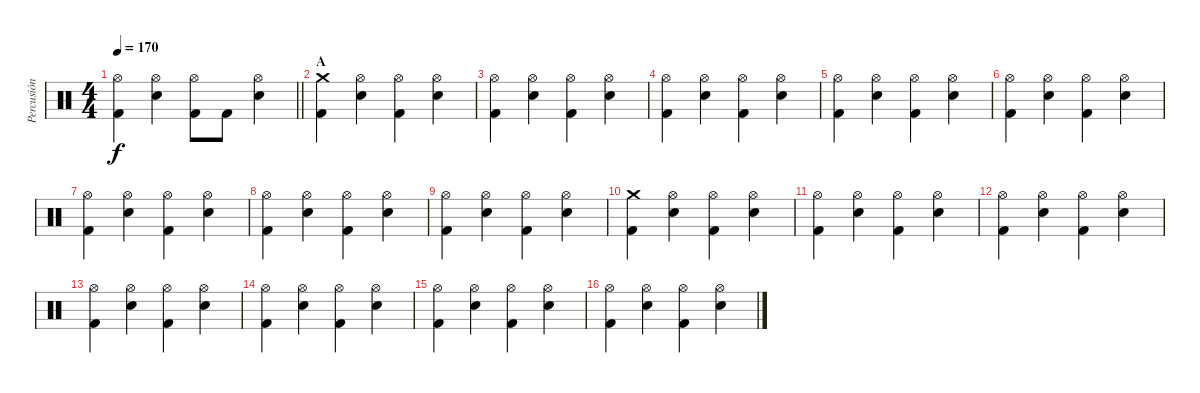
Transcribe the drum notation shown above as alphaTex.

\track ("Percusión" "Percusión") {instrument percussion}
\staff {score}
\articulation defaults
\ts (4 4)
\tempo 170
\clef neutral
\barLineRight lightlight
\ks c
("Hi-Hat (open)" "Kick (hit) 2").4{dy f} ("Hi-Hat (open)" "Snare (hit) 2").4 ("Hi-Hat (open)" "Kick (hit) 2").8 "Kick (hit) 2".8 ("Hi-Hat (open)" "Snare (hit) 2").4 |
\section ("" "A")
("Crash medium (hit)" "Kick (hit) 2").4 ("Hi-Hat (open)" "Snare (hit) 2").4 ("Hi-Hat (open)" "Kick (hit) 2").4 ("Hi-Hat (open)" "Snare (hit) 2").4 |
("Hi-Hat (open)" "Kick (hit) 2").4 ("Hi-Hat (open)" "Snare (hit) 2").4 ("Hi-Hat (open)" "Kick (hit) 2").4 ("Hi-Hat (open)" "Snare (hit) 2").4 |
("Hi-Hat (open)" "Kick (hit) 2").4 ("Hi-Hat (open)" "Snare (hit) 2").4 ("Hi-Hat (open)" "Kick (hit) 2").4 ("Hi-Hat (open)" "Snare (hit) 2").4 |
("Hi-Hat (open)" "Kick (hit) 2").4 ("Hi-Hat (open)" "Snare (hit) 2").4 ("Hi-Hat (open)" "Kick (hit) 2").4 ("Hi-Hat (open)" "Snare (hit) 2").4 |
("Hi-Hat (open)" "Kick (hit) 2").4 ("Hi-Hat (open)" "Snare (hit) 2").4 ("Hi-Hat (open)" "Kick (hit) 2").4 ("Hi-Hat (open)" "Snare (hit) 2").4 |
("Hi-Hat (open)" "Kick (hit) 2").4 ("Hi-Hat (open)" "Snare (hit) 2").4 ("Hi-Hat (open)" "Kick (hit) 2").4 ("Hi-Hat (open)" "Snare (hit) 2").4 |
("Hi-Hat (open)" "Kick (hit) 2").4 ("Hi-Hat (open)" "Snare (hit) 2").4 ("Hi-Hat (open)" "Kick (hit) 2").4 ("Hi-Hat (open)" "Snare (hit) 2").4 |
("Hi-Hat (open)" "Kick (hit) 2").4 ("Hi-Hat (open)" "Snare (hit) 2").4 ("Hi-Hat (open)" "Kick (hit) 2").4 ("Hi-Hat (open)" "Snare (hit) 2").4 |
("Crash medium (hit)" "Kick (hit) 2").4 ("Hi-Hat (open)" "Snare (hit) 2").4 ("Hi-Hat (open)" "Kick (hit) 2").4 ("Hi-Hat (open)" "Snare (hit) 2").4 |
("Hi-Hat (open)" "Kick (hit) 2").4 ("Hi-Hat (open)" "Snare (hit) 2").4 ("Hi-Hat (open)" "Kick (hit) 2").4 ("Hi-Hat (open)" "Snare (hit) 2").4 |
("Hi-Hat (open)" "Kick (hit) 2").4 ("Hi-Hat (open)" "Snare (hit) 2").4 ("Hi-Hat (open)" "Kick (hit) 2").4 ("Hi-Hat (open)" "Snare (hit) 2").4 |
("Hi-Hat (open)" "Kick (hit) 2").4 ("Hi-Hat (open)" "Snare (hit) 2").4 ("Hi-Hat (open)" "Kick (hit) 2").4 ("Hi-Hat (open)" "Snare (hit) 2").4 |
("Hi-Hat (open)" "Kick (hit) 2").4 ("Hi-Hat (open)" "Snare (hit) 2").4 ("Hi-Hat (open)" "Kick (hit) 2").4 ("Hi-Hat (open)" "Snare (hit) 2").4 |
("Hi-Hat (open)" "Kick (hit) 2").4 ("Hi-Hat (open)" "Snare (hit) 2").4 ("Hi-Hat (open)" "Kick (hit) 2").4 ("Hi-Hat (open)" "Snare (hit) 2").4 |
("Hi-Hat (open)" "Kick (hit) 2").4 ("Hi-Hat (open)" "Snare (hit) 2").4 ("Hi-Hat (open)" "Kick (hit) 2").4 ("Hi-Hat (open)" "Snare (hit) 2").4
